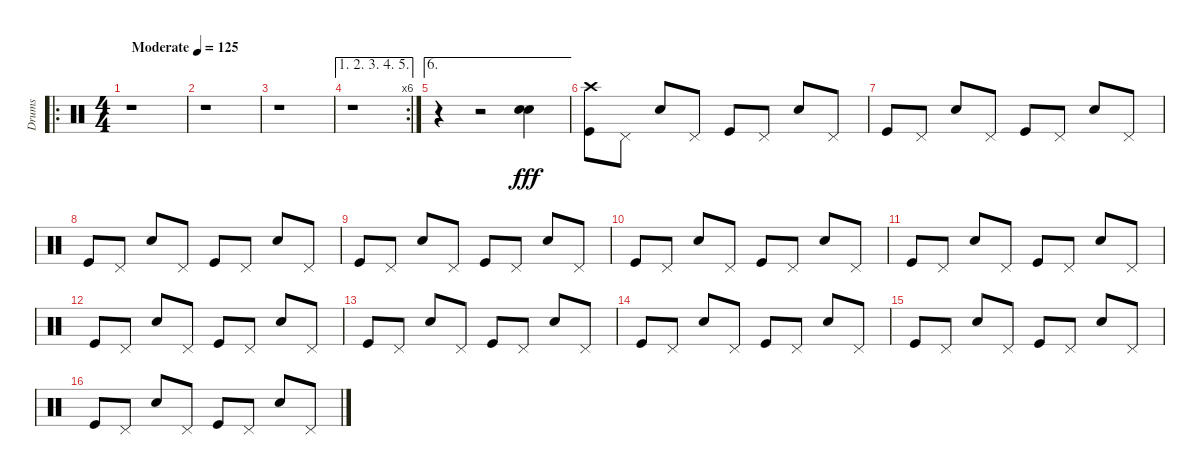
\track ("Drums" "Drums") {instrument percussion}
\staff {score}
\articulation defaults
\ro
\ts (4 4)
\tempo (125 "Moderate")
\clef neutral
\ks c
r.1{dy fff} |
r.1 |
r.1 |
\ae (1 2 3 4 5)
\rc 6
r.1 |
\ae 6
r.4 r.2 ("Electric Snare (hit)" "Snare (hit) 2").4 |
("Crash high (hit)" "Kick (hit)").8 "Pedal Hi-Hat (hit)".8 "Electric Snare (hit)".8 "Pedal Hi-Hat (hit)".8 "Kick (hit)".8 "Pedal Hi-Hat (hit)".8 "Electric Snare (hit)".8 "Pedal Hi-Hat (hit)".8 |
"Kick (hit)".8 "Pedal Hi-Hat (hit)".8 "Electric Snare (hit)".8 "Pedal Hi-Hat (hit)".8 "Kick (hit)".8 "Pedal Hi-Hat (hit)".8 "Electric Snare (hit)".8 "Pedal Hi-Hat (hit)".8 |
"Kick (hit)".8 "Pedal Hi-Hat (hit)".8 "Electric Snare (hit)".8 "Pedal Hi-Hat (hit)".8 "Kick (hit)".8 "Pedal Hi-Hat (hit)".8 "Electric Snare (hit)".8 "Pedal Hi-Hat (hit)".8 |
"Kick (hit)".8 "Pedal Hi-Hat (hit)".8 "Electric Snare (hit)".8 "Pedal Hi-Hat (hit)".8 "Kick (hit)".8 "Pedal Hi-Hat (hit)".8 "Electric Snare (hit)".8 "Pedal Hi-Hat (hit)".8 |
"Kick (hit)".8 "Pedal Hi-Hat (hit)".8 "Electric Snare (hit)".8 "Pedal Hi-Hat (hit)".8 "Kick (hit)".8 "Pedal Hi-Hat (hit)".8 "Electric Snare (hit)".8 "Pedal Hi-Hat (hit)".8 |
"Kick (hit)".8 "Pedal Hi-Hat (hit)".8 "Electric Snare (hit)".8 "Pedal Hi-Hat (hit)".8 "Kick (hit)".8 "Pedal Hi-Hat (hit)".8 "Electric Snare (hit)".8 "Pedal Hi-Hat (hit)".8 |
"Kick (hit)".8 "Pedal Hi-Hat (hit)".8 "Electric Snare (hit)".8 "Pedal Hi-Hat (hit)".8 "Kick (hit)".8 "Pedal Hi-Hat (hit)".8 "Electric Snare (hit)".8 "Pedal Hi-Hat (hit)".8 |
"Kick (hit)".8 "Pedal Hi-Hat (hit)".8 "Electric Snare (hit)".8 "Pedal Hi-Hat (hit)".8 "Kick (hit)".8 "Pedal Hi-Hat (hit)".8 "Electric Snare (hit)".8 "Pedal Hi-Hat (hit)".8 |
"Kick (hit)".8 "Pedal Hi-Hat (hit)".8 "Electric Snare (hit)".8 "Pedal Hi-Hat (hit)".8 "Kick (hit)".8 "Pedal Hi-Hat (hit)".8 "Electric Snare (hit)".8 "Pedal Hi-Hat (hit)".8 |
"Kick (hit)".8 "Pedal Hi-Hat (hit)".8 "Electric Snare (hit)".8 "Pedal Hi-Hat (hit)".8 "Kick (hit)".8 "Pedal Hi-Hat (hit)".8 "Electric Snare (hit)".8 "Pedal Hi-Hat (hit)".8 |
"Kick (hit)".8 "Pedal Hi-Hat (hit)".8 "Electric Snare (hit)".8 "Pedal Hi-Hat (hit)".8 "Kick (hit)".8 "Pedal Hi-Hat (hit)".8 "Electric Snare (hit)".8 "Pedal Hi-Hat (hit)".8
